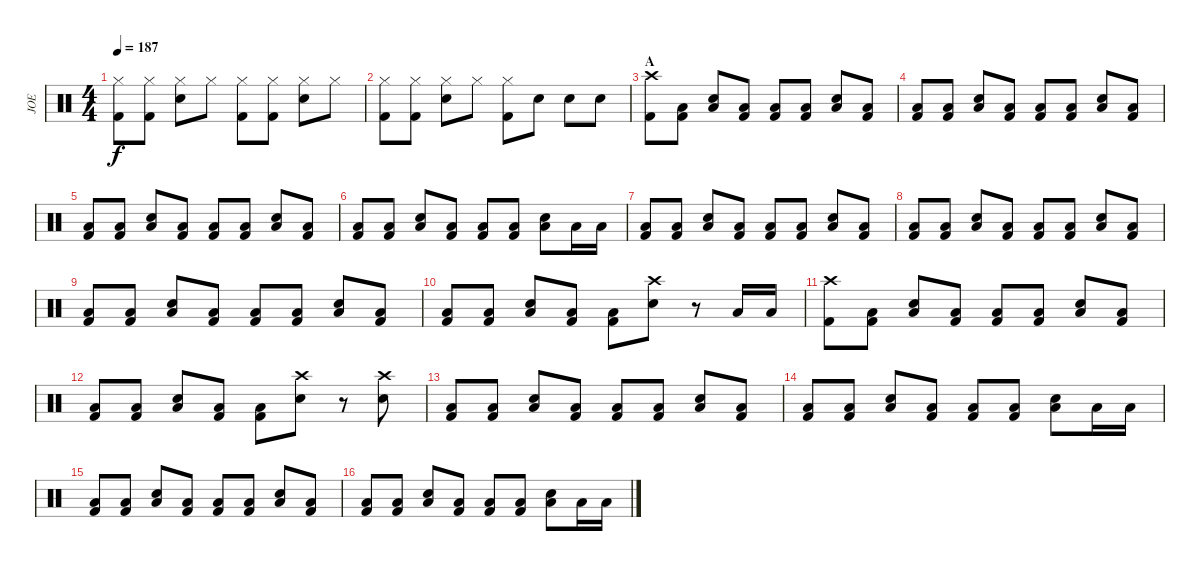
\track ("JOE" "JOE") {instrument percussion}
\staff {score}
\articulation defaults
\ts (4 4)
\tempo 187
\clef neutral
\ks c
("Hi-Hat (closed)" "Kick (hit) 2").8{dy f} ("Hi-Hat (closed)" "Kick (hit) 2").8 ("Hi-Hat (closed)" "Snare (hit) 2").8 "Hi-Hat (closed)".8 ("Hi-Hat (closed)" "Kick (hit) 2").8 ("Hi-Hat (closed)" "Kick (hit) 2").8 ("Hi-Hat (closed)" "Snare (hit) 2").8 "Hi-Hat (closed)".8 |
("Hi-Hat (closed)" "Kick (hit) 2").8 ("Hi-Hat (closed)" "Kick (hit) 2").8 ("Hi-Hat (closed)" "Snare (hit) 2").8 "Hi-Hat (closed)".8 ("Hi-Hat (closed)" "Kick (hit) 2").8 "Snare (hit) 2".8 "Snare (hit) 2".8 "Snare (hit) 2".8 |
\section ("" "A")
("Crash high (hit)" "Kick (hit) 2").8 ("Low Floor Tom (hit)" "Kick (hit) 2").8 ("Low Floor Tom (hit)" "Snare (hit) 2").8 ("Low Floor Tom (hit)" "Kick (hit) 2").8 ("Low Floor Tom (hit)" "Kick (hit) 2").8 ("Low Floor Tom (hit)" "Kick (hit) 2").8 ("Low Floor Tom (hit)" "Snare (hit) 2").8 ("Low Floor Tom (hit)" "Kick (hit) 2").8 |
("Low Floor Tom (hit)" "Kick (hit) 2").8 ("Low Floor Tom (hit)" "Kick (hit) 2").8 ("Low Floor Tom (hit)" "Snare (hit) 2").8 ("Low Floor Tom (hit)" "Kick (hit) 2").8 ("Low Floor Tom (hit)" "Kick (hit) 2").8 ("Low Floor Tom (hit)" "Kick (hit) 2").8 ("Low Floor Tom (hit)" "Snare (hit) 2").8 ("Low Floor Tom (hit)" "Kick (hit) 2").8 |
("Low Floor Tom (hit)" "Kick (hit) 2").8 ("Low Floor Tom (hit)" "Kick (hit) 2").8 ("Low Floor Tom (hit)" "Snare (hit) 2").8 ("Low Floor Tom (hit)" "Kick (hit) 2").8 ("Low Floor Tom (hit)" "Kick (hit) 2").8 ("Low Floor Tom (hit)" "Kick (hit) 2").8 ("Low Floor Tom (hit)" "Snare (hit) 2").8 ("Low Floor Tom (hit)" "Kick (hit) 2").8 |
("Low Floor Tom (hit)" "Kick (hit) 2").8 ("Low Floor Tom (hit)" "Kick (hit) 2").8 ("Low Floor Tom (hit)" "Snare (hit) 2").8 ("Low Floor Tom (hit)" "Kick (hit) 2").8 ("Low Floor Tom (hit)" "Kick (hit) 2").8 ("Low Floor Tom (hit)" "Kick (hit) 2").8 ("Low Floor Tom (hit)" "Snare (hit) 2").8 "Low Floor Tom (hit)".16 "Low Floor Tom (hit)".16 |
("Low Floor Tom (hit)" "Kick (hit) 2").8 ("Low Floor Tom (hit)" "Kick (hit) 2").8 ("Low Floor Tom (hit)" "Snare (hit) 2").8 ("Low Floor Tom (hit)" "Kick (hit) 2").8 ("Low Floor Tom (hit)" "Kick (hit) 2").8 ("Low Floor Tom (hit)" "Kick (hit) 2").8 ("Low Floor Tom (hit)" "Snare (hit) 2").8 ("Low Floor Tom (hit)" "Kick (hit) 2").8 |
("Low Floor Tom (hit)" "Kick (hit) 2").8 ("Low Floor Tom (hit)" "Kick (hit) 2").8 ("Low Floor Tom (hit)" "Snare (hit) 2").8 ("Low Floor Tom (hit)" "Kick (hit) 2").8 ("Low Floor Tom (hit)" "Kick (hit) 2").8 ("Low Floor Tom (hit)" "Kick (hit) 2").8 ("Low Floor Tom (hit)" "Snare (hit) 2").8 ("Low Floor Tom (hit)" "Kick (hit) 2").8 |
("Low Floor Tom (hit)" "Kick (hit) 2").8 ("Low Floor Tom (hit)" "Kick (hit) 2").8 ("Low Floor Tom (hit)" "Snare (hit) 2").8 ("Low Floor Tom (hit)" "Kick (hit) 2").8 ("Low Floor Tom (hit)" "Kick (hit) 2").8 ("Low Floor Tom (hit)" "Kick (hit) 2").8 ("Low Floor Tom (hit)" "Snare (hit) 2").8 ("Low Floor Tom (hit)" "Kick (hit) 2").8 |
("Low Floor Tom (hit)" "Kick (hit) 2").8 ("Low Floor Tom (hit)" "Kick (hit) 2").8 ("Low Floor Tom (hit)" "Snare (hit) 2").8 ("Low Floor Tom (hit)" "Kick (hit) 2").8 ("Low Floor Tom (hit)" "Kick (hit) 2").8 ("Crash high (hit)" "Snare (hit) 2").8 r.8 "Low Floor Tom (hit)".16 "Low Floor Tom (hit)".16 |
("Crash high (hit)" "Kick (hit) 2").8 ("Low Floor Tom (hit)" "Kick (hit) 2").8 ("Low Floor Tom (hit)" "Snare (hit) 2").8 ("Low Floor Tom (hit)" "Kick (hit) 2").8 ("Low Floor Tom (hit)" "Kick (hit) 2").8 ("Low Floor Tom (hit)" "Kick (hit) 2").8 ("Low Floor Tom (hit)" "Snare (hit) 2").8 ("Low Floor Tom (hit)" "Kick (hit) 2").8 |
("Low Floor Tom (hit)" "Kick (hit) 2").8 ("Low Floor Tom (hit)" "Kick (hit) 2").8 ("Low Floor Tom (hit)" "Snare (hit) 2").8 ("Low Floor Tom (hit)" "Kick (hit) 2").8 ("Low Floor Tom (hit)" "Kick (hit) 2").8 ("Crash high (hit)" "Snare (hit) 2").8 r.8 ("Crash high (hit)" "Snare (hit) 2").8 |
("Low Floor Tom (hit)" "Kick (hit) 2").8 ("Low Floor Tom (hit)" "Kick (hit) 2").8 ("Low Floor Tom (hit)" "Snare (hit) 2").8 ("Low Floor Tom (hit)" "Kick (hit) 2").8 ("Low Floor Tom (hit)" "Kick (hit) 2").8 ("Low Floor Tom (hit)" "Kick (hit) 2").8 ("Low Floor Tom (hit)" "Snare (hit) 2").8 ("Low Floor Tom (hit)" "Kick (hit) 2").8 |
("Low Floor Tom (hit)" "Kick (hit) 2").8 ("Low Floor Tom (hit)" "Kick (hit) 2").8 ("Low Floor Tom (hit)" "Snare (hit) 2").8 ("Low Floor Tom (hit)" "Kick (hit) 2").8 ("Low Floor Tom (hit)" "Kick (hit) 2").8 ("Low Floor Tom (hit)" "Kick (hit) 2").8 ("Low Floor Tom (hit)" "Snare (hit) 2").8 "Low Floor Tom (hit)".16 "Low Floor Tom (hit)".16 |
("Low Floor Tom (hit)" "Kick (hit) 2").8 ("Low Floor Tom (hit)" "Kick (hit) 2").8 ("Low Floor Tom (hit)" "Snare (hit) 2").8 ("Low Floor Tom (hit)" "Kick (hit) 2").8 ("Low Floor Tom (hit)" "Kick (hit) 2").8 ("Low Floor Tom (hit)" "Kick (hit) 2").8 ("Low Floor Tom (hit)" "Snare (hit) 2").8 ("Low Floor Tom (hit)" "Kick (hit) 2").8 |
("Low Floor Tom (hit)" "Kick (hit) 2").8 ("Low Floor Tom (hit)" "Kick (hit) 2").8 ("Low Floor Tom (hit)" "Snare (hit) 2").8 ("Low Floor Tom (hit)" "Kick (hit) 2").8 ("Low Floor Tom (hit)" "Kick (hit) 2").8 ("Low Floor Tom (hit)" "Kick (hit) 2").8 ("Low Floor Tom (hit)" "Snare (hit) 2").8 "Low Floor Tom (hit)".16 "Low Floor Tom (hit)".16
